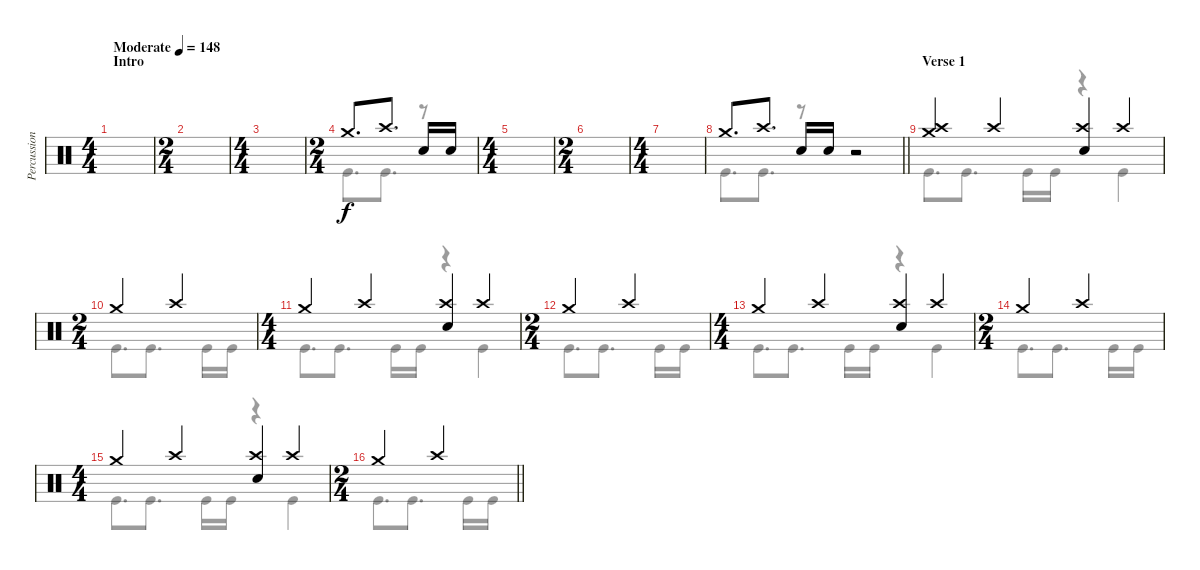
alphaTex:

\track ("Percussion" "Percussion") {instrument percussion}
\staff {score}
\articulation defaults
\voice
\ts (4 4)
\section ("" "Intro")
\tempo (148 "Moderate")
\clef neutral
\ks c
|
\ts (2 4)
|
\ts (4 4)
|
\ts (2 4)
"Crash medium (hit)".8{d} "Crash high (hit)".8{d} "Electric Snare (hit)".16 "Electric Snare (hit)".16 |
\ts (4 4)
|
\ts (2 4)
|
\ts (4 4)
|
\barLineRight lightlight "Crash medium (hit)".8{d} "Crash high (hit)".8{d} "Electric Snare (hit)".16 "Electric Snare (hit)".16
r.2 |
\section ("" "Verse 1")
("Crash medium (hit)" "Crash high (hit)").4 "Crash high (hit)".4 ("Crash high (hit)" "Electric Snare (hit)").4 "Crash high (hit)".4 |
\ts (2 4)
"Crash medium (hit)".4 "Crash high (hit)".4 |
\ts (4 4)
"Crash medium (hit)".4 "Crash high (hit)".4 ("Crash high (hit)" "Electric Snare (hit)").4 "Crash high (hit)".4 |
\ts (2 4)
"Crash medium (hit)".4 "Crash high (hit)".4 |
\ts (4 4)
"Crash medium (hit)".4 "Crash high (hit)".4 ("Crash high (hit)" "Electric Snare (hit)").4 "Crash high (hit)".4 |
\ts (2 4)
"Crash medium (hit)".4 "Crash high (hit)".4 |
\ts (4 4)
"Crash medium (hit)".4 "Crash high (hit)".4 ("Crash high (hit)" "Electric Snare (hit)").4 "Crash high (hit)".4 |
\ts (2 4)
\barLineRight lightlight "Crash medium (hit)".4 "Crash high (hit)".4
\voice
\clef neutral
\ottava regular
\simile none
\ks c
|
|
|
"Kick (hit)".8{d} "Kick (hit)".8{d} r.8 |
|
|
|
\barLineRight lightlight "Kick (hit)".8{d} "Kick (hit)".8{d}
r.8 r.2 |
"Kick (hit)".8{d} "Kick (hit)".8{d} "Kick (hit)".16 "Kick (hit)".16 r.4 "Kick (hit)".4 |
"Kick (hit)".8{d} "Kick (hit)".8{d} "Kick (hit)".16 "Kick (hit)".16 |
"Kick (hit)".8{d} "Kick (hit)".8{d} "Kick (hit)".16 "Kick (hit)".16 r.4 "Kick (hit)".4 |
"Kick (hit)".8{d} "Kick (hit)".8{d} "Kick (hit)".16 "Kick (hit)".16 |
"Kick (hit)".8{d} "Kick (hit)".8{d} "Kick (hit)".16 "Kick (hit)".16 r.4 "Kick (hit)".4 |
"Kick (hit)".8{d} "Kick (hit)".8{d} "Kick (hit)".16 "Kick (hit)".16 |
"Kick (hit)".8{d} "Kick (hit)".8{d} "Kick (hit)".16 "Kick (hit)".16 r.4 "Kick (hit)".4 |
\barLineRight lightlight "Kick (hit)".8{d} "Kick (hit)".8{d} "Kick (hit)".16 "Kick (hit)".16
